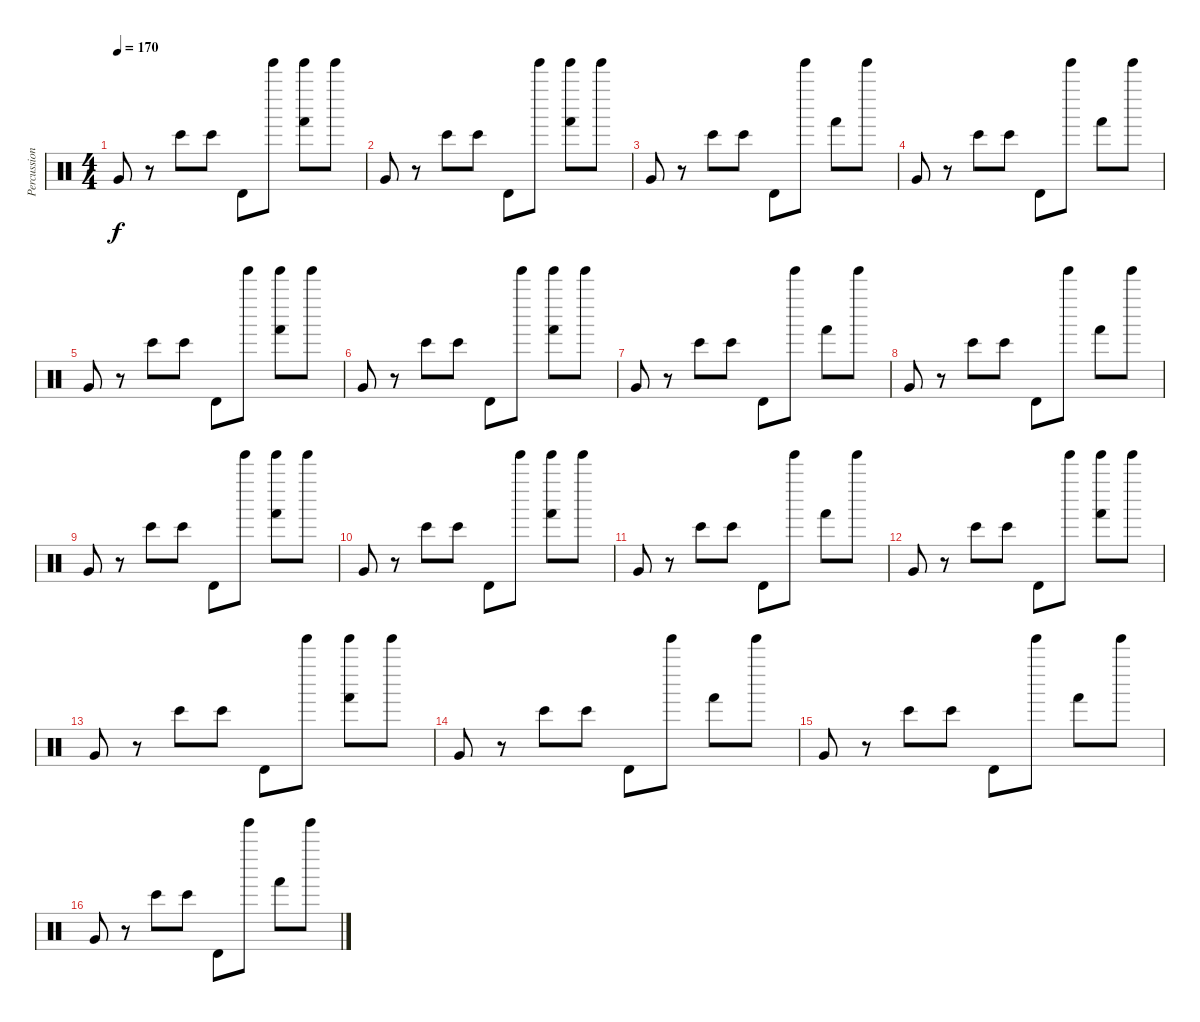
\track ("Percussion" "Percussion") {instrument percussion}
\staff {score}
\articulation defaults
\ts (4 4)
\tempo 170
\clef neutral
\ks c "Very Low Tom (hit)".8{dy f}
r.8 "Bongo High (hit)".8 "Bongo High (hit)".8 "Timbale high (hit)".8 "Tinkle Bell (hit)".8 ("Hand (hit)" "Tinkle Bell (hit)").8 "Tinkle Bell (hit)".8 |
"Very Low Tom (hit)".8 r.8 "Bongo High (hit)".8 "Bongo High (hit)".8 "Timbale high (hit)".8 "Tinkle Bell (hit)".8 ("Hand (hit)" "Tinkle Bell (hit)").8 "Tinkle Bell (hit)".8 |
"Very Low Tom (hit)".8 r.8 "Bongo High (hit)".8 "Bongo High (hit)".8 "Timbale high (hit)".8 "Tinkle Bell (hit)".8 "Hand (hit)".8 "Tinkle Bell (hit)".8 |
"Very Low Tom (hit)".8 r.8 "Bongo High (hit)".8 "Bongo High (hit)".8 "Timbale high (hit)".8 "Tinkle Bell (hit)".8 "Hand (hit)".8 "Tinkle Bell (hit)".8 |
"Very Low Tom (hit)".8 r.8 "Bongo High (hit)".8 "Bongo High (hit)".8 "Timbale high (hit)".8 "Tinkle Bell (hit)".8 ("Hand (hit)" "Tinkle Bell (hit)").8 "Tinkle Bell (hit)".8 |
"Very Low Tom (hit)".8 r.8 "Bongo High (hit)".8 "Bongo High (hit)".8 "Timbale high (hit)".8 "Tinkle Bell (hit)".8 ("Hand (hit)" "Tinkle Bell (hit)").8 "Tinkle Bell (hit)".8 |
"Very Low Tom (hit)".8 r.8 "Bongo High (hit)".8 "Bongo High (hit)".8 "Timbale high (hit)".8 "Tinkle Bell (hit)".8 "Hand (hit)".8 "Tinkle Bell (hit)".8 |
"Very Low Tom (hit)".8 r.8 "Bongo High (hit)".8 "Bongo High (hit)".8 "Timbale high (hit)".8 "Tinkle Bell (hit)".8 "Hand (hit)".8 "Tinkle Bell (hit)".8 |
"Very Low Tom (hit)".8 r.8 "Bongo High (hit)".8 "Bongo High (hit)".8 "Timbale high (hit)".8 "Tinkle Bell (hit)".8 ("Hand (hit)" "Tinkle Bell (hit)").8 "Tinkle Bell (hit)".8 |
"Very Low Tom (hit)".8 r.8 "Bongo High (hit)".8 "Bongo High (hit)".8 "Timbale high (hit)".8 "Tinkle Bell (hit)".8 ("Hand (hit)" "Tinkle Bell (hit)").8 "Tinkle Bell (hit)".8 |
"Very Low Tom (hit)".8 r.8 "Bongo High (hit)".8 "Bongo High (hit)".8 "Timbale high (hit)".8 "Tinkle Bell (hit)".8 "Hand (hit)".8 "Tinkle Bell (hit)".8 |
"Very Low Tom (hit)".8 r.8 "Bongo High (hit)".8 "Bongo High (hit)".8 "Timbale high (hit)".8 "Tinkle Bell (hit)".8 ("Hand (hit)" "Tinkle Bell (hit)").8 "Tinkle Bell (hit)".8 |
"Very Low Tom (hit)".8 r.8 "Bongo High (hit)".8 "Bongo High (hit)".8 "Timbale high (hit)".8 "Tinkle Bell (hit)".8 ("Hand (hit)" "Tinkle Bell (hit)").8 "Tinkle Bell (hit)".8 |
"Very Low Tom (hit)".8 r.8 "Bongo High (hit)".8 "Bongo High (hit)".8 "Timbale high (hit)".8 "Tinkle Bell (hit)".8 "Hand (hit)".8 "Tinkle Bell (hit)".8 |
"Very Low Tom (hit)".8 r.8 "Bongo High (hit)".8 "Bongo High (hit)".8 "Timbale high (hit)".8 "Tinkle Bell (hit)".8 "Hand (hit)".8 "Tinkle Bell (hit)".8 |
"Very Low Tom (hit)".8 r.8 "Bongo High (hit)".8 "Bongo High (hit)".8 "Timbale high (hit)".8 "Tinkle Bell (hit)".8 "Hand (hit)".8 "Tinkle Bell (hit)".8
